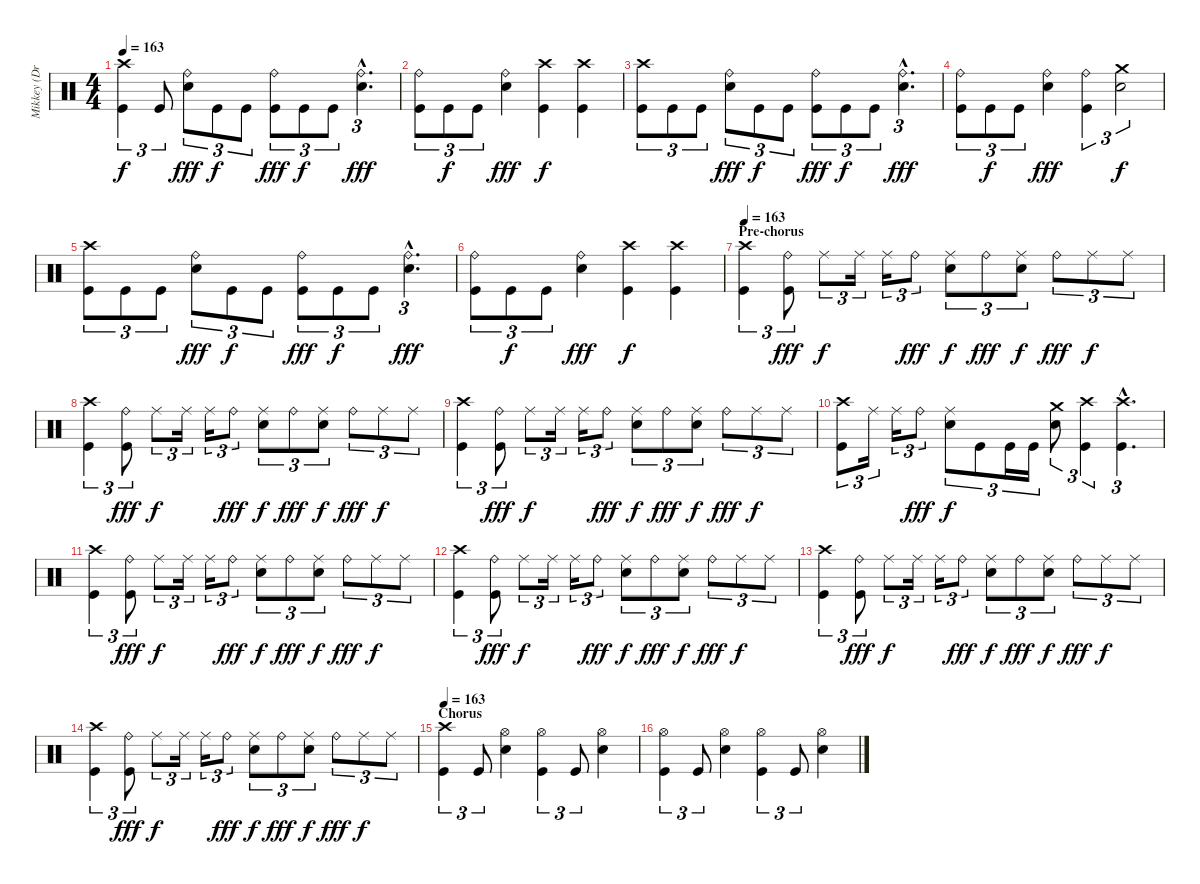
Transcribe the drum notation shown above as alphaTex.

\track ("Mikkey (Drums)" "Mikkey (Dr") {instrument percussion}
\staff {score}
\articulation defaults
\ts (4 4)
\tempo 163
\clef neutral
\ks c
("Crash high (hit)" "Kick (hit)").4{tu (3 2) dy f} "Kick (hit)".8{tu (3 2)} ("Ride (bell)" "Electric Snare (hit)").8{tu (3 2) dy fff} "Kick (hit)".8{tu (3 2) dy f} "Kick (hit)".8{tu (3 2)} ("Ride (bell)" "Kick (hit)").8{tu (3 2) dy fff} "Kick (hit)".8{tu (3 2) dy f} "Kick (hit)".8{tu (3 2)} ("Ride (bell)"{hac} "Electric Snare (hit)"{hac}).4{d tu (3 2) dy fff} |
("Ride (bell)" "Kick (hit)").8{tu (3 2)} "Kick (hit)".8{tu (3 2) dy f} "Kick (hit)".8{tu (3 2)} ("Ride (bell)" "Electric Snare (hit)").4{dy fff} ("Crash high (hit)" "Kick (hit)").4{dy f} ("Crash high (hit)" "Kick (hit)").4 |
("Crash high (hit)" "Kick (hit)").8{tu (3 2)} "Kick (hit)".8{tu (3 2)} "Kick (hit)".8{tu (3 2)} ("Ride (bell)" "Electric Snare (hit)").8{tu (3 2) dy fff} "Kick (hit)".8{tu (3 2) dy f} "Kick (hit)".8{tu (3 2)} ("Ride (bell)" "Kick (hit)").8{tu (3 2) dy fff} "Kick (hit)".8{tu (3 2) dy f} "Kick (hit)".8{tu (3 2)} ("Ride (bell)"{hac} "Electric Snare (hit)"{hac}).4{d tu (3 2) dy fff} |
("Ride (bell)" "Kick (hit)").8{tu (3 2)} "Kick (hit)".8{tu (3 2) dy f} "Kick (hit)".8{tu (3 2)} ("Ride (bell)" "Electric Snare (hit)").4{dy fff} ("Ride (bell)" "Kick (hit)").4{tu (3 2)} ("Crash medium (hit)" "Electric Snare (hit)").2{tu (3 2) dy f} |
("Crash high (hit)" "Kick (hit)").8{tu (3 2)} "Kick (hit)".8{tu (3 2)} "Kick (hit)".8{tu (3 2)} ("Ride (bell)" "Electric Snare (hit)").8{tu (3 2) dy fff} "Kick (hit)".8{tu (3 2) dy f} "Kick (hit)".8{tu (3 2)} ("Ride (bell)" "Kick (hit)").8{tu (3 2) dy fff} "Kick (hit)".8{tu (3 2) dy f} "Kick (hit)".8{tu (3 2)} ("Ride (bell)"{hac} "Electric Snare (hit)"{hac}).4{d tu (3 2) dy fff} |
("Ride (bell)" "Kick (hit)").8{tu (3 2)} "Kick (hit)".8{tu (3 2) dy f} "Kick (hit)".8{tu (3 2)} ("Ride (bell)" "Electric Snare (hit)").4{dy fff} ("Crash high (hit)" "Kick (hit)").4{dy f} ("Crash high (hit)" "Kick (hit)").4 |
\section ("" "Pre-chorus")
\tempo 163
("Crash high (hit)" "Kick (hit)").4{tu (3 2)} ("Ride (bell)" "Kick (hit)").8{tu (3 2) dy fff} "Ride (middle)".8{tu (3 2) dy f} "Ride (middle)".16{tu (3 2)} "Ride (middle)".16{tu (3 2)} "Ride (bell)".8{tu (3 2) dy fff} ("Ride (middle)" "Electric Snare (hit)").8{tu (3 2) dy f} "Ride (bell)".8{tu (3 2) dy fff} ("Ride (middle)" "Electric Snare (hit)").8{tu (3 2) dy f} "Ride (bell)".8{tu (3 2) dy fff} "Ride (middle)".8{tu (3 2) dy f} "Ride (middle)".8{tu (3 2)} |
("Crash high (hit)" "Kick (hit)").4{tu (3 2)} ("Ride (bell)" "Kick (hit)").8{tu (3 2) dy fff} "Ride (middle)".8{tu (3 2) dy f} "Ride (middle)".16{tu (3 2)} "Ride (middle)".16{tu (3 2)} "Ride (bell)".8{tu (3 2) dy fff} ("Ride (middle)" "Electric Snare (hit)").8{tu (3 2) dy f} "Ride (bell)".8{tu (3 2) dy fff} ("Ride (middle)" "Electric Snare (hit)").8{tu (3 2) dy f} "Ride (bell)".8{tu (3 2) dy fff} "Ride (middle)".8{tu (3 2) dy f} "Ride (middle)".8{tu (3 2)} |
("Crash high (hit)" "Kick (hit)").4{tu (3 2)} ("Ride (bell)" "Kick (hit)").8{tu (3 2) dy fff} "Ride (middle)".8{tu (3 2) dy f} "Ride (middle)".16{tu (3 2)} "Ride (middle)".16{tu (3 2)} "Ride (bell)".8{tu (3 2) dy fff} ("Ride (middle)" "Electric Snare (hit)").8{tu (3 2) dy f} "Ride (bell)".8{tu (3 2) dy fff} ("Ride (middle)" "Electric Snare (hit)").8{tu (3 2) dy f} "Ride (bell)".8{tu (3 2) dy fff} "Ride (middle)".8{tu (3 2) dy f} "Ride (middle)".8{tu (3 2)} |
("Crash high (hit)" "Kick (hit)").8{tu (3 2)} "Ride (middle)".16{tu (3 2)} "Ride (middle)".16{tu (3 2)} "Ride (bell)".8{tu (3 2) dy fff} ("Ride (middle)" "Electric Snare (hit)").8{tu (3 2) dy f} "Kick (hit)".8{tu (3 2)} "Kick (hit)".16{tu (3 2)} "Kick (hit)".16{tu (3 2)} ("Crash medium (hit)" "Electric Snare (hit)").8{tu (3 2)} ("Crash high (hit)" "Kick (hit)").4{tu (3 2)} ("Crash high (hit)"{hac} "Kick (hit)"{hac}).4{d tu (3 2)} |
("Crash high (hit)" "Kick (hit)").4{tu (3 2)} ("Ride (bell)" "Kick (hit)").8{tu (3 2) dy fff} "Ride (middle)".8{tu (3 2) dy f} "Ride (middle)".16{tu (3 2)} "Ride (middle)".16{tu (3 2)} "Ride (bell)".8{tu (3 2) dy fff} ("Ride (middle)" "Electric Snare (hit)").8{tu (3 2) dy f} "Ride (bell)".8{tu (3 2) dy fff} ("Ride (middle)" "Electric Snare (hit)").8{tu (3 2) dy f} "Ride (bell)".8{tu (3 2) dy fff} "Ride (middle)".8{tu (3 2) dy f} "Ride (middle)".8{tu (3 2)} |
("Crash high (hit)" "Kick (hit)").4{tu (3 2)} ("Ride (bell)" "Kick (hit)").8{tu (3 2) dy fff} "Ride (middle)".8{tu (3 2) dy f} "Ride (middle)".16{tu (3 2)} "Ride (middle)".16{tu (3 2)} "Ride (bell)".8{tu (3 2) dy fff} ("Ride (middle)" "Electric Snare (hit)").8{tu (3 2) dy f} "Ride (bell)".8{tu (3 2) dy fff} ("Ride (middle)" "Electric Snare (hit)").8{tu (3 2) dy f} "Ride (bell)".8{tu (3 2) dy fff} "Ride (middle)".8{tu (3 2) dy f} "Ride (middle)".8{tu (3 2)} |
("Crash high (hit)" "Kick (hit)").4{tu (3 2)} ("Ride (bell)" "Kick (hit)").8{tu (3 2) dy fff} "Ride (middle)".8{tu (3 2) dy f} "Ride (middle)".16{tu (3 2)} "Ride (middle)".16{tu (3 2)} "Ride (bell)".8{tu (3 2) dy fff} ("Ride (middle)" "Electric Snare (hit)").8{tu (3 2) dy f} "Ride (bell)".8{tu (3 2) dy fff} ("Ride (middle)" "Electric Snare (hit)").8{tu (3 2) dy f} "Ride (bell)".8{tu (3 2) dy fff} "Ride (middle)".8{tu (3 2) dy f} "Ride (middle)".8{tu (3 2)} |
("Crash high (hit)" "Kick (hit)").4{tu (3 2)} ("Ride (bell)" "Kick (hit)").8{tu (3 2) dy fff} "Ride (middle)".8{tu (3 2) dy f} "Ride (middle)".16{tu (3 2)} "Ride (middle)".16{tu (3 2)} "Ride (bell)".8{tu (3 2) dy fff} ("Ride (middle)" "Electric Snare (hit)").8{tu (3 2) dy f} "Ride (bell)".8{tu (3 2) dy fff} ("Ride (middle)" "Electric Snare (hit)").8{tu (3 2) dy f} "Ride (bell)".8{tu (3 2) dy fff} "Ride (middle)".8{tu (3 2) dy f} "Ride (middle)".8{tu (3 2)} |
\section ("" "Chorus")
\tempo 163
("Crash high (hit)" "Kick (hit)").4{tu (3 2)} "Kick (hit)".8{tu (3 2)} ("Hi-Hat (open)" "Electric Snare (hit)").4 ("Hi-Hat (open)" "Kick (hit)").4{tu (3 2)} "Kick (hit)".8{tu (3 2)} ("Hi-Hat (open)" "Electric Snare (hit)").4 |
("Hi-Hat (open)" "Kick (hit)").4{tu (3 2)} "Kick (hit)".8{tu (3 2)} ("Hi-Hat (open)" "Electric Snare (hit)").4 ("Hi-Hat (open)" "Kick (hit)").4{tu (3 2)} "Kick (hit)".8{tu (3 2)} ("Hi-Hat (open)" "Electric Snare (hit)").4
